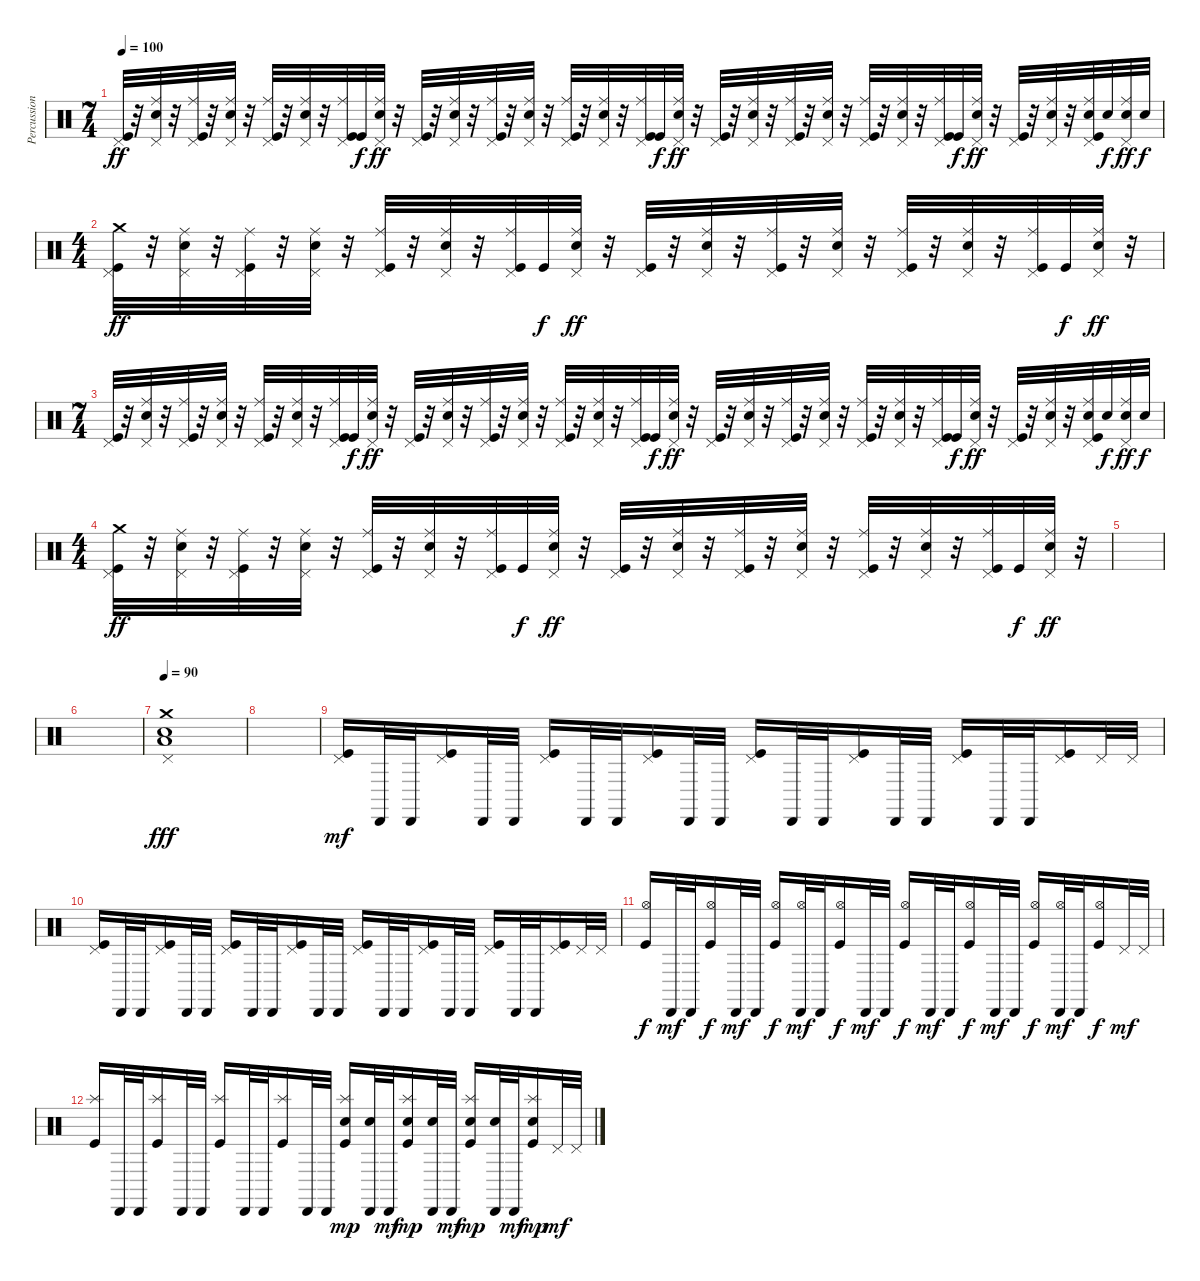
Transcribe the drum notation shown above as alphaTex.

\track ("Percussion" "Percussion") {instrument percussion}
\staff {score}
\articulation defaults
\ts (7 4)
\tempo 100
\clef neutral
\ks c
("Pedal Hi-Hat (hit)" "Kick (hit)").32{dy ff} r.32 ("Pedal Hi-Hat (hit)" "Ride (middle)" "Electric Snare (hit)").32 r.32 ("Pedal Hi-Hat (hit)" "Ride (middle)" "Kick (hit)").32 r.32 ("Pedal Hi-Hat (hit)" "Ride (middle)" "Electric Snare (hit)").32 r.32 ("Pedal Hi-Hat (hit)" "Ride (middle)" "Kick (hit)").32 r.32 ("Pedal Hi-Hat (hit)" "Ride (middle)" "Electric Snare (hit)").32 r.32 ("Pedal Hi-Hat (hit)" "Ride (middle)" "Kick (hit)").32 "Kick (hit)".32{dy f} ("Pedal Hi-Hat (hit)" "Ride (middle)" "Electric Snare (hit)").32{dy ff} r.32 ("Pedal Hi-Hat (hit)" "Kick (hit)").32 r.32 ("Pedal Hi-Hat (hit)" "Ride (middle)" "Electric Snare (hit)").32 r.32 ("Pedal Hi-Hat (hit)" "Ride (middle)" "Kick (hit)").32 r.32 ("Pedal Hi-Hat (hit)" "Ride (middle)" "Electric Snare (hit)").32 r.32 ("Pedal Hi-Hat (hit)" "Ride (middle)" "Kick (hit)").32 r.32 ("Pedal Hi-Hat (hit)" "Ride (middle)" "Electric Snare (hit)").32 r.32 ("Pedal Hi-Hat (hit)" "Ride (middle)" "Kick (hit)").32 "Kick (hit)".32{dy f} ("Pedal Hi-Hat (hit)" "Ride (middle)" "Electric Snare (hit)").32{dy ff} r.32 ("Pedal Hi-Hat (hit)" "Kick (hit)").32 r.32 ("Pedal Hi-Hat (hit)" "Ride (middle)" "Electric Snare (hit)").32 r.32 ("Pedal Hi-Hat (hit)" "Ride (middle)" "Kick (hit)").32 r.32 ("Pedal Hi-Hat (hit)" "Ride (middle)" "Electric Snare (hit)").32 r.32 ("Pedal Hi-Hat (hit)" "Ride (middle)" "Kick (hit)").32 r.32 ("Pedal Hi-Hat (hit)" "Ride (middle)" "Electric Snare (hit)").32 r.32 ("Pedal Hi-Hat (hit)" "Ride (middle)" "Kick (hit)").32 "Kick (hit)".32{dy f} ("Pedal Hi-Hat (hit)" "Ride (middle)" "Electric Snare (hit)").32{dy ff} r.32 ("Pedal Hi-Hat (hit)" "Kick (hit)").32 r.32 ("Pedal Hi-Hat (hit)" "Ride (middle)" "Electric Snare (hit)").32 r.32 ("Pedal Hi-Hat (hit)" "Ride (middle)" "Electric Snare (hit)" "Kick (hit)").32 "Electric Snare (hit)".32{dy f} ("Pedal Hi-Hat (hit)" "Ride (middle)" "Electric Snare (hit)").32{dy ff} "Electric Snare (hit)".32{dy f} |
\ts (4 4)
("Pedal Hi-Hat (hit)" "Crash medium (hit)" "Kick (hit)").32{dy ff} r.32 ("Pedal Hi-Hat (hit)" "Ride (middle)" "Electric Snare (hit)").32 r.32 ("Pedal Hi-Hat (hit)" "Ride (middle)" "Kick (hit)").32 r.32 ("Pedal Hi-Hat (hit)" "Ride (middle)" "Electric Snare (hit)").32 r.32 ("Pedal Hi-Hat (hit)" "Ride (middle)" "Kick (hit)").32 r.32 ("Pedal Hi-Hat (hit)" "Ride (middle)" "Electric Snare (hit)").32 r.32 ("Pedal Hi-Hat (hit)" "Ride (middle)" "Kick (hit)").32 "Kick (hit)".32{dy f} ("Pedal Hi-Hat (hit)" "Ride (middle)" "Electric Snare (hit)").32{dy ff} r.32 ("Pedal Hi-Hat (hit)" "Kick (hit)").32 r.32 ("Pedal Hi-Hat (hit)" "Ride (middle)" "Electric Snare (hit)").32 r.32 ("Pedal Hi-Hat (hit)" "Ride (middle)" "Kick (hit)").32 r.32 ("Pedal Hi-Hat (hit)" "Ride (middle)" "Electric Snare (hit)").32 r.32 ("Pedal Hi-Hat (hit)" "Ride (middle)" "Kick (hit)").32 r.32 ("Pedal Hi-Hat (hit)" "Ride (middle)" "Electric Snare (hit)").32 r.32 ("Pedal Hi-Hat (hit)" "Ride (middle)" "Kick (hit)").32 "Kick (hit)".32{dy f} ("Pedal Hi-Hat (hit)" "Ride (middle)" "Electric Snare (hit)").32{dy ff} r.32 |
\ts (7 4)
("Pedal Hi-Hat (hit)" "Kick (hit)").32 r.32 ("Pedal Hi-Hat (hit)" "Ride (middle)" "Electric Snare (hit)").32 r.32 ("Pedal Hi-Hat (hit)" "Ride (middle)" "Kick (hit)").32 r.32 ("Pedal Hi-Hat (hit)" "Ride (middle)" "Electric Snare (hit)").32 r.32 ("Pedal Hi-Hat (hit)" "Ride (middle)" "Kick (hit)").32 r.32 ("Pedal Hi-Hat (hit)" "Ride (middle)" "Electric Snare (hit)").32 r.32 ("Pedal Hi-Hat (hit)" "Ride (middle)" "Kick (hit)").32 "Kick (hit)".32{dy f} ("Pedal Hi-Hat (hit)" "Ride (middle)" "Electric Snare (hit)").32{dy ff} r.32 ("Pedal Hi-Hat (hit)" "Kick (hit)").32 r.32 ("Pedal Hi-Hat (hit)" "Ride (middle)" "Electric Snare (hit)").32 r.32 ("Pedal Hi-Hat (hit)" "Ride (middle)" "Kick (hit)").32 r.32 ("Pedal Hi-Hat (hit)" "Ride (middle)" "Electric Snare (hit)").32 r.32 ("Pedal Hi-Hat (hit)" "Ride (middle)" "Kick (hit)").32 r.32 ("Pedal Hi-Hat (hit)" "Ride (middle)" "Electric Snare (hit)").32 r.32 ("Pedal Hi-Hat (hit)" "Ride (middle)" "Kick (hit)").32 "Kick (hit)".32{dy f} ("Pedal Hi-Hat (hit)" "Ride (middle)" "Electric Snare (hit)").32{dy ff} r.32 ("Pedal Hi-Hat (hit)" "Kick (hit)").32 r.32 ("Pedal Hi-Hat (hit)" "Ride (middle)" "Electric Snare (hit)").32 r.32 ("Pedal Hi-Hat (hit)" "Ride (middle)" "Kick (hit)").32 r.32 ("Pedal Hi-Hat (hit)" "Ride (middle)" "Electric Snare (hit)").32 r.32 ("Pedal Hi-Hat (hit)" "Ride (middle)" "Kick (hit)").32 r.32 ("Pedal Hi-Hat (hit)" "Ride (middle)" "Electric Snare (hit)").32 r.32 ("Pedal Hi-Hat (hit)" "Ride (middle)" "Kick (hit)").32 "Kick (hit)".32{dy f} ("Pedal Hi-Hat (hit)" "Ride (middle)" "Electric Snare (hit)").32{dy ff} r.32 ("Pedal Hi-Hat (hit)" "Kick (hit)").32 r.32 ("Pedal Hi-Hat (hit)" "Ride (middle)" "Electric Snare (hit)").32 r.32 ("Pedal Hi-Hat (hit)" "Ride (middle)" "Electric Snare (hit)" "Kick (hit)").32 "Electric Snare (hit)".32{dy f} ("Pedal Hi-Hat (hit)" "Ride (middle)" "Electric Snare (hit)").32{dy ff} "Electric Snare (hit)".32{dy f} |
\ts (4 4)
("Pedal Hi-Hat (hit)" "Crash medium (hit)" "Kick (hit)").32{dy ff} r.32 ("Pedal Hi-Hat (hit)" "Ride (middle)" "Electric Snare (hit)").32 r.32 ("Pedal Hi-Hat (hit)" "Ride (middle)" "Kick (hit)").32 r.32 ("Pedal Hi-Hat (hit)" "Ride (middle)" "Electric Snare (hit)").32 r.32 ("Pedal Hi-Hat (hit)" "Ride (middle)" "Kick (hit)").32 r.32 ("Pedal Hi-Hat (hit)" "Ride (middle)" "Electric Snare (hit)").32 r.32 ("Pedal Hi-Hat (hit)" "Ride (middle)" "Kick (hit)").32 "Kick (hit)".32{dy f} ("Pedal Hi-Hat (hit)" "Ride (middle)" "Electric Snare (hit)").32{dy ff} r.32 ("Pedal Hi-Hat (hit)" "Kick (hit)").32 r.32 ("Pedal Hi-Hat (hit)" "Ride (middle)" "Electric Snare (hit)").32 r.32 ("Pedal Hi-Hat (hit)" "Ride (middle)" "Kick (hit)").32 r.32 ("Pedal Hi-Hat (hit)" "Ride (middle)" "Electric Snare (hit)").32 r.32 ("Pedal Hi-Hat (hit)" "Ride (middle)" "Kick (hit)").32 r.32 ("Pedal Hi-Hat (hit)" "Ride (middle)" "Electric Snare (hit)").32 r.32 ("Pedal Hi-Hat (hit)" "Ride (middle)" "Kick (hit)").32 "Kick (hit)".32{dy f} ("Pedal Hi-Hat (hit)" "Ride (middle)" "Electric Snare (hit)").32{dy ff} r.32 |
|
|
\tempo 90
("Pedal Hi-Hat (hit)" "Crash medium (hit)" "Electric Snare (hit)" "Low Floor Tom (hit)").1{dy fff} |
|
("Pedal Hi-Hat (hit)" "Kick (hit)").16{dy mf} "Cabasa (hit)".32 "Cabasa (hit)".32 ("Pedal Hi-Hat (hit)" "Kick (hit)").16 "Cabasa (hit)".32 "Cabasa (hit)".32 ("Pedal Hi-Hat (hit)" "Kick (hit)").16 "Cabasa (hit)".32 "Cabasa (hit)".32 ("Pedal Hi-Hat (hit)" "Kick (hit)").16 "Cabasa (hit)".32 "Cabasa (hit)".32 ("Pedal Hi-Hat (hit)" "Kick (hit)").16 "Cabasa (hit)".32 "Cabasa (hit)".32 ("Pedal Hi-Hat (hit)" "Kick (hit)").16 "Cabasa (hit)".32 "Cabasa (hit)".32 ("Pedal Hi-Hat (hit)" "Kick (hit)").16 "Cabasa (hit)".32 "Cabasa (hit)".32 ("Pedal Hi-Hat (hit)" "Kick (hit)").16 "Pedal Hi-Hat (hit)".32 "Pedal Hi-Hat (hit)".32 |
("Pedal Hi-Hat (hit)" "Kick (hit)").16 "Cabasa (hit)".32 "Cabasa (hit)".32 ("Pedal Hi-Hat (hit)" "Kick (hit)").16 "Cabasa (hit)".32 "Cabasa (hit)".32 ("Pedal Hi-Hat (hit)" "Kick (hit)").16 "Cabasa (hit)".32 "Cabasa (hit)".32 ("Pedal Hi-Hat (hit)" "Kick (hit)").16 "Cabasa (hit)".32 "Cabasa (hit)".32 ("Pedal Hi-Hat (hit)" "Kick (hit)").16 "Cabasa (hit)".32 "Cabasa (hit)".32 ("Pedal Hi-Hat (hit)" "Kick (hit)").16 "Cabasa (hit)".32 "Cabasa (hit)".32 ("Pedal Hi-Hat (hit)" "Kick (hit)").16 "Cabasa (hit)".32 "Cabasa (hit)".32 ("Pedal Hi-Hat (hit)" "Kick (hit)").16 "Pedal Hi-Hat (hit)".32 "Pedal Hi-Hat (hit)".32 |
("Hi-Hat (open)" "Kick (hit)").16{dy f} "Cabasa (hit)".32{dy mf} "Cabasa (hit)".32 ("Hi-Hat (open)" "Kick (hit)").16{dy f} "Cabasa (hit)".32{dy mf} "Cabasa (hit)".32 ("Hi-Hat (open)" "Kick (hit)").16{dy f} ("Cabasa (hit)" "Hi-Hat (open)").32{dy mf} "Cabasa (hit)".32 ("Hi-Hat (open)" "Kick (hit)").16{dy f} "Cabasa (hit)".32{dy mf} "Cabasa (hit)".32 ("Hi-Hat (open)" "Kick (hit)").16{dy f} "Cabasa (hit)".32{dy mf} "Cabasa (hit)".32 ("Hi-Hat (open)" "Kick (hit)").16{dy f} "Cabasa (hit)".32{dy mf} "Cabasa (hit)".32 ("Hi-Hat (open)" "Kick (hit)").16{dy f} ("Cabasa (hit)" "Hi-Hat (open)").32{dy mf} "Cabasa (hit)".32 ("Hi-Hat (open)" "Kick (hit)").16{dy f} "Pedal Hi-Hat (hit)".32{dy mf} "Pedal Hi-Hat (hit)".32 |
("Splash (hit)" "Kick (hit)").16 "Cabasa (hit)".32 "Cabasa (hit)".32 ("Splash (hit)" "Kick (hit)").16 "Cabasa (hit)".32 "Cabasa (hit)".32 ("Splash (hit)" "Kick (hit)").16 "Cabasa (hit)".32 "Cabasa (hit)".32 ("Splash (hit)" "Kick (hit)").16 "Cabasa (hit)".32 "Cabasa (hit)".32 ("Splash (hit)" "Electric Snare (hit)" "Kick (hit)").16{dy mp} ("Cabasa (hit)" "Electric Snare (hit)").32 "Cabasa (hit)".32{dy mf} ("Splash (hit)" "Electric Snare (hit)" "Kick (hit)").16{dy mp} ("Cabasa (hit)" "Electric Snare (hit)").32 "Cabasa (hit)".32{dy mf} ("Splash (hit)" "Electric Snare (hit)" "Kick (hit)").16{dy mp} ("Cabasa (hit)" "Electric Snare (hit)").32 "Cabasa (hit)".32{dy mf} ("Splash (hit)" "Electric Snare (hit)" "Kick (hit)").16{dy mp} "Pedal Hi-Hat (hit)".32{dy mf} "Pedal Hi-Hat (hit)".32
